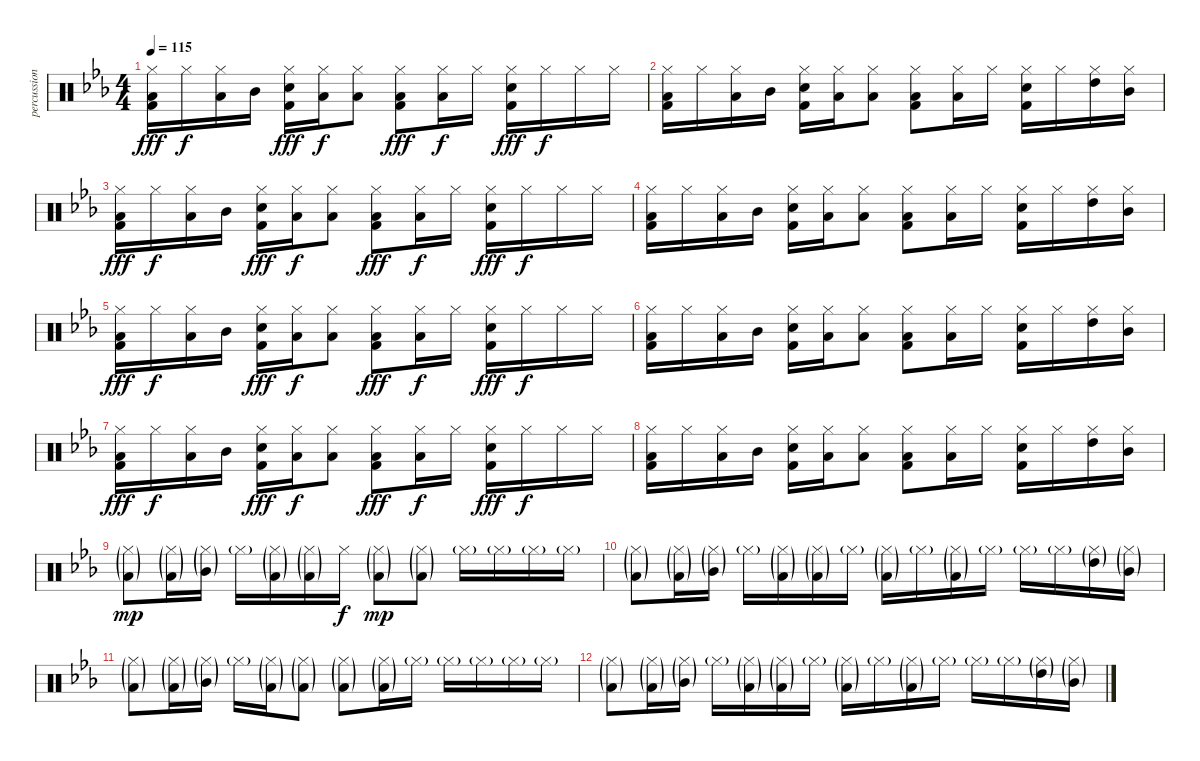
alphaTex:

\track ("percussion" "percussion") {instrument percussion}
\staff {score}
\articulation defaults
\ts (4 4)
\tempo 115
\clef neutral
\ks eb
("Low Tom (hit)" "Hi-Hat (closed)" "Kick (hit) 2").16{dy fff} "Hi-Hat (closed)".16{dy f} ("Low Tom (hit)" "Hi-Hat (closed)").16 "Mid Tom (hit)".16 ("Electric Snare (hit)" "Hi-Hat (closed)" "Kick (hit) 2").16{dy fff} ("Low Tom (hit)" "Hi-Hat (closed)").16{dy f} ("Low Tom (hit)" "Hi-Hat (closed)").8 ("Low Tom (hit)" "Hi-Hat (closed)" "Kick (hit) 2").8{dy fff} ("Low Tom (hit)" "Hi-Hat (closed)").16{dy f} "Hi-Hat (closed)".16 ("Electric Snare (hit)" "Hi-Hat (closed)" "Kick (hit) 2").16{dy fff} "Hi-Hat (closed)".16{dy f} "Hi-Hat (closed)".16 "Hi-Hat (closed)".16 |
("Low Tom (hit)" "Hi-Hat (closed)" "Kick (hit) 2").16 "Hi-Hat (closed)".16 ("Low Tom (hit)" "Hi-Hat (closed)").16 "Mid Tom (hit)".16 ("Electric Snare (hit)" "Hi-Hat (closed)" "Kick (hit) 2").16 ("Low Tom (hit)" "Hi-Hat (closed)").16 ("Low Tom (hit)" "Hi-Hat (closed)").8 ("Low Tom (hit)" "Hi-Hat (closed)" "Kick (hit) 2").8 ("Low Tom (hit)" "Hi-Hat (closed)").16 "Hi-Hat (closed)".16 ("Electric Snare (hit)" "Hi-Hat (closed)" "Kick (hit) 2").16 "Hi-Hat (closed)".16 ("High Tom (hit)" "Hi-Hat (closed)").16 ("Mid Tom (hit)" "Hi-Hat (closed)").16 |
("Low Tom (hit)" "Hi-Hat (closed)" "Kick (hit) 2").16{dy fff} "Hi-Hat (closed)".16{dy f} ("Low Tom (hit)" "Hi-Hat (closed)").16 "Mid Tom (hit)".16 ("Electric Snare (hit)" "Hi-Hat (closed)" "Kick (hit) 2").16{dy fff} ("Low Tom (hit)" "Hi-Hat (closed)").16{dy f} ("Low Tom (hit)" "Hi-Hat (closed)").8 ("Low Tom (hit)" "Hi-Hat (closed)" "Kick (hit) 2").8{dy fff} ("Low Tom (hit)" "Hi-Hat (closed)").16{dy f} "Hi-Hat (closed)".16 ("Electric Snare (hit)" "Hi-Hat (closed)" "Kick (hit) 2").16{dy fff} "Hi-Hat (closed)".16{dy f} "Hi-Hat (closed)".16 "Hi-Hat (closed)".16 |
("Low Tom (hit)" "Hi-Hat (closed)" "Kick (hit) 2").16 "Hi-Hat (closed)".16 ("Low Tom (hit)" "Hi-Hat (closed)").16 "Mid Tom (hit)".16 ("Electric Snare (hit)" "Hi-Hat (closed)" "Kick (hit) 2").16 ("Low Tom (hit)" "Hi-Hat (closed)").16 ("Low Tom (hit)" "Hi-Hat (closed)").8 ("Low Tom (hit)" "Hi-Hat (closed)" "Kick (hit) 2").8 ("Low Tom (hit)" "Hi-Hat (closed)").16 "Hi-Hat (closed)".16 ("Electric Snare (hit)" "Hi-Hat (closed)" "Kick (hit) 2").16 "Hi-Hat (closed)".16 ("High Tom (hit)" "Hi-Hat (closed)").16 ("Mid Tom (hit)" "Hi-Hat (closed)").16 |
("Low Tom (hit)" "Hi-Hat (closed)" "Kick (hit) 2").16{dy fff} "Hi-Hat (closed)".16{dy f} ("Low Tom (hit)" "Hi-Hat (closed)").16 "Mid Tom (hit)".16 ("Electric Snare (hit)" "Hi-Hat (closed)" "Kick (hit) 2").16{dy fff} ("Low Tom (hit)" "Hi-Hat (closed)").16{dy f} ("Low Tom (hit)" "Hi-Hat (closed)").8 ("Low Tom (hit)" "Hi-Hat (closed)" "Kick (hit) 2").8{dy fff} ("Low Tom (hit)" "Hi-Hat (closed)").16{dy f} "Hi-Hat (closed)".16 ("Electric Snare (hit)" "Hi-Hat (closed)" "Kick (hit) 2").16{dy fff} "Hi-Hat (closed)".16{dy f} "Hi-Hat (closed)".16 "Hi-Hat (closed)".16 |
("Low Tom (hit)" "Hi-Hat (closed)" "Kick (hit) 2").16 "Hi-Hat (closed)".16 ("Low Tom (hit)" "Hi-Hat (closed)").16 "Mid Tom (hit)".16 ("Electric Snare (hit)" "Hi-Hat (closed)" "Kick (hit) 2").16 ("Low Tom (hit)" "Hi-Hat (closed)").16 ("Low Tom (hit)" "Hi-Hat (closed)").8 ("Low Tom (hit)" "Hi-Hat (closed)" "Kick (hit) 2").8 ("Low Tom (hit)" "Hi-Hat (closed)").16 "Hi-Hat (closed)".16 ("Electric Snare (hit)" "Hi-Hat (closed)" "Kick (hit) 2").16 "Hi-Hat (closed)".16 ("High Tom (hit)" "Hi-Hat (closed)").16 ("Mid Tom (hit)" "Hi-Hat (closed)").16 |
("Low Tom (hit)" "Hi-Hat (closed)" "Kick (hit) 2").16{dy fff} "Hi-Hat (closed)".16{dy f} ("Low Tom (hit)" "Hi-Hat (closed)").16 "Mid Tom (hit)".16 ("Electric Snare (hit)" "Hi-Hat (closed)" "Kick (hit) 2").16{dy fff} ("Low Tom (hit)" "Hi-Hat (closed)").16{dy f} ("Low Tom (hit)" "Hi-Hat (closed)").8 ("Low Tom (hit)" "Hi-Hat (closed)" "Kick (hit) 2").8{dy fff} ("Low Tom (hit)" "Hi-Hat (closed)").16{dy f} "Hi-Hat (closed)".16 ("Electric Snare (hit)" "Hi-Hat (closed)" "Kick (hit) 2").16{dy fff} "Hi-Hat (closed)".16{dy f} "Hi-Hat (closed)".16 "Hi-Hat (closed)".16 |
("Low Tom (hit)" "Hi-Hat (closed)" "Kick (hit) 2").16 "Hi-Hat (closed)".16 ("Low Tom (hit)" "Hi-Hat (closed)").16 "Mid Tom (hit)".16 ("Electric Snare (hit)" "Hi-Hat (closed)" "Kick (hit) 2").16 ("Low Tom (hit)" "Hi-Hat (closed)").16 ("Low Tom (hit)" "Hi-Hat (closed)").8 ("Low Tom (hit)" "Hi-Hat (closed)" "Kick (hit) 2").8 ("Low Tom (hit)" "Hi-Hat (closed)").16 "Hi-Hat (closed)".16 ("Electric Snare (hit)" "Hi-Hat (closed)" "Kick (hit) 2").16 "Hi-Hat (closed)".16 ("High Tom (hit)" "Hi-Hat (closed)").16 ("Mid Tom (hit)" "Hi-Hat (closed)").16 |
("Low Tom (hit)"{g} "Hi-Hat (closed)"{g}).8{dy mp} ("Low Tom (hit)"{g} "Hi-Hat (closed)"{g}).16 ("Mid Tom (hit)"{g} "Hi-Hat (closed)"{g}).16 "Hi-Hat (closed)"{g}.16 ("Low Tom (hit)"{g} "Hi-Hat (closed)"{g}).16 ("Low Tom (hit)"{g} "Hi-Hat (closed)"{g}).16 "Hi-Hat (closed)".16{dy f} ("Low Tom (hit)"{g} "Hi-Hat (closed)"{g}).8{dy mp} ("Low Tom (hit)"{g} "Hi-Hat (closed)"{g}).8 "Hi-Hat (closed)"{g}.16 "Hi-Hat (closed)"{g}.16 "Hi-Hat (closed)"{g}.16 "Hi-Hat (closed)"{g}.16 |
("Low Tom (hit)"{g} "Hi-Hat (closed)"{g}).8 ("Low Tom (hit)"{g} "Hi-Hat (closed)"{g}).16 ("Mid Tom (hit)"{g} "Hi-Hat (closed)"{g}).16 "Hi-Hat (closed)"{g}.16 ("Low Tom (hit)"{g} "Hi-Hat (closed)"{g}).16 ("Low Tom (hit)"{g} "Hi-Hat (closed)"{g}).16 "Hi-Hat (closed)"{g}.16 ("Low Tom (hit)"{g} "Hi-Hat (closed)"{g}).16 "Hi-Hat (closed)"{g}.16 ("Low Tom (hit)"{g} "Hi-Hat (closed)"{g}).16 "Hi-Hat (closed)"{g}.16 "Hi-Hat (closed)"{g}.16 "Hi-Hat (closed)"{g}.16 ("High Tom (hit)"{g} "Hi-Hat (closed)"{g}).16 ("Mid Tom (hit)"{g} "Hi-Hat (closed)"{g}).16 |
("Low Tom (hit)"{g} "Hi-Hat (closed)"{g}).8 ("Low Tom (hit)"{g} "Hi-Hat (closed)"{g}).16 ("Mid Tom (hit)"{g} "Hi-Hat (closed)"{g}).16 "Hi-Hat (closed)"{g}.16 ("Low Tom (hit)"{g} "Hi-Hat (closed)"{g}).16 ("Low Tom (hit)"{g} "Hi-Hat (closed)"{g}).8 ("Low Tom (hit)"{g} "Hi-Hat (closed)"{g}).8 ("Low Tom (hit)"{g} "Hi-Hat (closed)"{g}).16 "Hi-Hat (closed)"{g}.16 "Hi-Hat (closed)"{g}.16 "Hi-Hat (closed)"{g}.16 "Hi-Hat (closed)"{g}.16 "Hi-Hat (closed)"{g}.16 |
("Low Tom (hit)"{g} "Hi-Hat (closed)"{g}).8 ("Low Tom (hit)"{g} "Hi-Hat (closed)"{g}).16 ("Mid Tom (hit)"{g} "Hi-Hat (closed)"{g}).16 "Hi-Hat (closed)"{g}.16 ("Low Tom (hit)"{g} "Hi-Hat (closed)"{g}).16 ("Low Tom (hit)"{g} "Hi-Hat (closed)"{g}).16 "Hi-Hat (closed)"{g}.16 ("Low Tom (hit)"{g} "Hi-Hat (closed)"{g}).16 "Hi-Hat (closed)"{g}.16 ("Low Tom (hit)"{g} "Hi-Hat (closed)"{g}).16 "Hi-Hat (closed)"{g}.16 "Hi-Hat (closed)"{g}.16 "Hi-Hat (closed)"{g}.16 ("High Tom (hit)"{g} "Hi-Hat (closed)"{g}).16 ("Mid Tom (hit)"{g} "Hi-Hat (closed)"{g}).16
